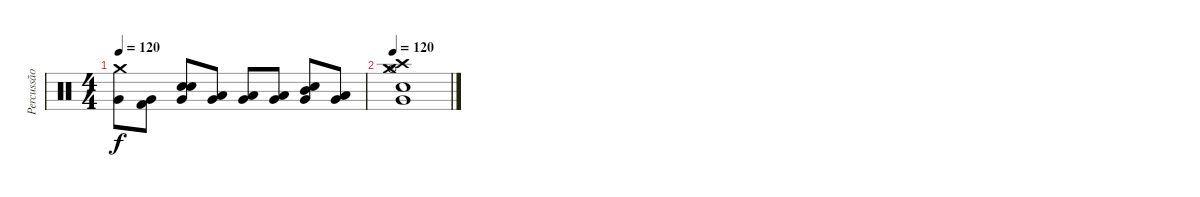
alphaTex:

\track ("Percussão" "Percussão") {instrument percussion}
\staff {score}
\articulation defaults
\ts (4 4)
\tempo 120
\clef neutral
\ks c
("Very Low Tom (hit)" "Crash medium (hit)").8{dy f} ("Very Low Tom (hit)" "Kick (hit) 2").8 ("Very Low Tom (hit)" "Snare (hit) 2" "Snare (hit) 2").8 ("Very Low Tom (hit)" "Low Floor Tom (hit)").8 ("Very Low Tom (hit)" "Low Tom (hit)").8 ("Very Low Tom (hit)" "Low Floor Tom (hit)").8 ("Very Low Tom (hit)" "Mid Tom (hit)" "Snare (hit) 2").8 ("Very Low Tom (hit)" "Low Tom (hit)").8 |
\tempo 120
("Very Low Tom (hit)" "Hi-Hat (open)" "Crash high (hit)" "Crash medium (hit)" "Snare (hit) 2").1
